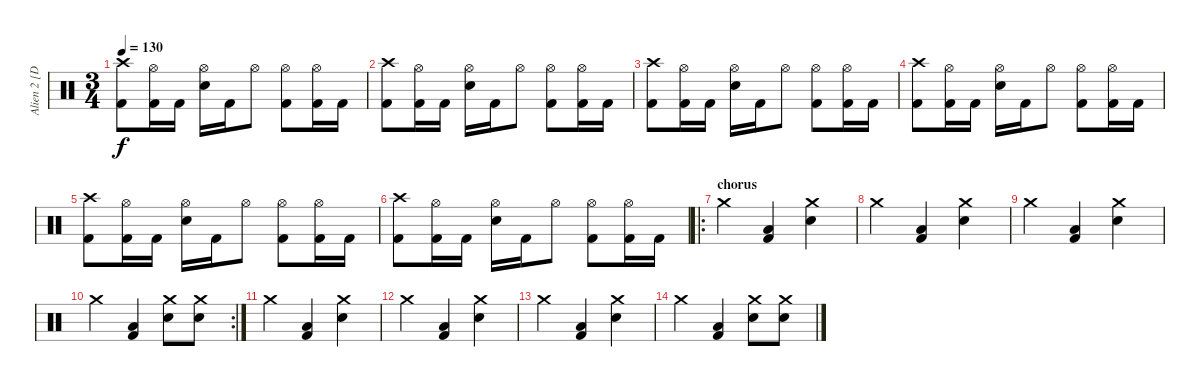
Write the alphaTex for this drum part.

\track ("Alien 2 [Drums]" "Alien 2 [D") {instrument percussion}
\staff {score}
\articulation defaults
\ts (3 4)
\tempo 130
\clef neutral
\ks c
("Crash high (hit)" "Kick (hit) 2").8{dy f} ("Hi-Hat (open)" "Kick (hit) 2").16 "Kick (hit) 2".16 ("Hi-Hat (open)" "Electric Snare (hit)").16 "Kick (hit) 2".16 "Hi-Hat (open)".8 ("Hi-Hat (open)" "Kick (hit) 2").8 ("Hi-Hat (open)" "Kick (hit) 2").16 "Kick (hit) 2".16 |
("Crash high (hit)" "Kick (hit) 2").8 ("Hi-Hat (open)" "Kick (hit) 2").16 "Kick (hit) 2".16 ("Hi-Hat (open)" "Electric Snare (hit)").16 "Kick (hit) 2".16 "Hi-Hat (open)".8 ("Hi-Hat (open)" "Kick (hit) 2").8 ("Hi-Hat (open)" "Kick (hit) 2").16 "Kick (hit) 2".16 |
("Crash high (hit)" "Kick (hit) 2").8 ("Hi-Hat (open)" "Kick (hit) 2").16 "Kick (hit) 2".16 ("Hi-Hat (open)" "Electric Snare (hit)").16 "Kick (hit) 2".16 "Hi-Hat (open)".8 ("Hi-Hat (open)" "Kick (hit) 2").8 ("Hi-Hat (open)" "Kick (hit) 2").16 "Kick (hit) 2".16 |
("Crash high (hit)" "Kick (hit) 2").8 ("Hi-Hat (open)" "Kick (hit) 2").16 "Kick (hit) 2".16 ("Hi-Hat (open)" "Electric Snare (hit)").16 "Kick (hit) 2".16 "Hi-Hat (open)".8 ("Hi-Hat (open)" "Kick (hit) 2").8 ("Hi-Hat (open)" "Kick (hit) 2").16 "Kick (hit) 2".16 |
("Crash high (hit)" "Kick (hit) 2").8 ("Hi-Hat (open)" "Kick (hit) 2").16 "Kick (hit) 2".16 ("Hi-Hat (open)" "Electric Snare (hit)").16 "Kick (hit) 2".16 "Hi-Hat (open)".8 ("Hi-Hat (open)" "Kick (hit) 2").8 ("Hi-Hat (open)" "Kick (hit) 2").16 "Kick (hit) 2".16 |
("Crash high (hit)" "Kick (hit) 2").8 ("Hi-Hat (open)" "Kick (hit) 2").16 "Kick (hit) 2".16 ("Hi-Hat (open)" "Electric Snare (hit)").16 "Kick (hit) 2".16 "Hi-Hat (open)".8 ("Hi-Hat (open)" "Kick (hit) 2").8 ("Hi-Hat (open)" "Kick (hit) 2").16 "Kick (hit) 2".16 |
\ro
\section ("" "chorus")
"Crash medium (hit)".4 ("Low Tom (hit)" "Kick (hit) 2").4 ("Crash medium (hit)" "Electric Snare (hit)").4 |
"Crash medium (hit)".4 ("Low Tom (hit)" "Kick (hit) 2").4 ("Crash medium (hit)" "Electric Snare (hit)").4 |
"Crash medium (hit)".4 ("Low Tom (hit)" "Kick (hit) 2").4 ("Crash medium (hit)" "Electric Snare (hit)").4 |
\rc 2 "Crash medium (hit)".4
("Low Tom (hit)" "Kick (hit) 2").4 ("Crash medium (hit)" "Electric Snare (hit)").8 ("Crash medium (hit)" "Electric Snare (hit)").8 |
"Crash medium (hit)".4 ("Low Tom (hit)" "Kick (hit) 2").4 ("Crash medium (hit)" "Electric Snare (hit)").4 |
"Crash medium (hit)".4 ("Low Tom (hit)" "Kick (hit) 2").4 ("Crash medium (hit)" "Electric Snare (hit)").4 |
"Crash medium (hit)".4 ("Low Tom (hit)" "Kick (hit) 2").4 ("Crash medium (hit)" "Electric Snare (hit)").4 |
"Crash medium (hit)".4 ("Low Tom (hit)" "Kick (hit) 2").4 ("Crash medium (hit)" "Electric Snare (hit)").8 ("Crash medium (hit)" "Electric Snare (hit)").8
